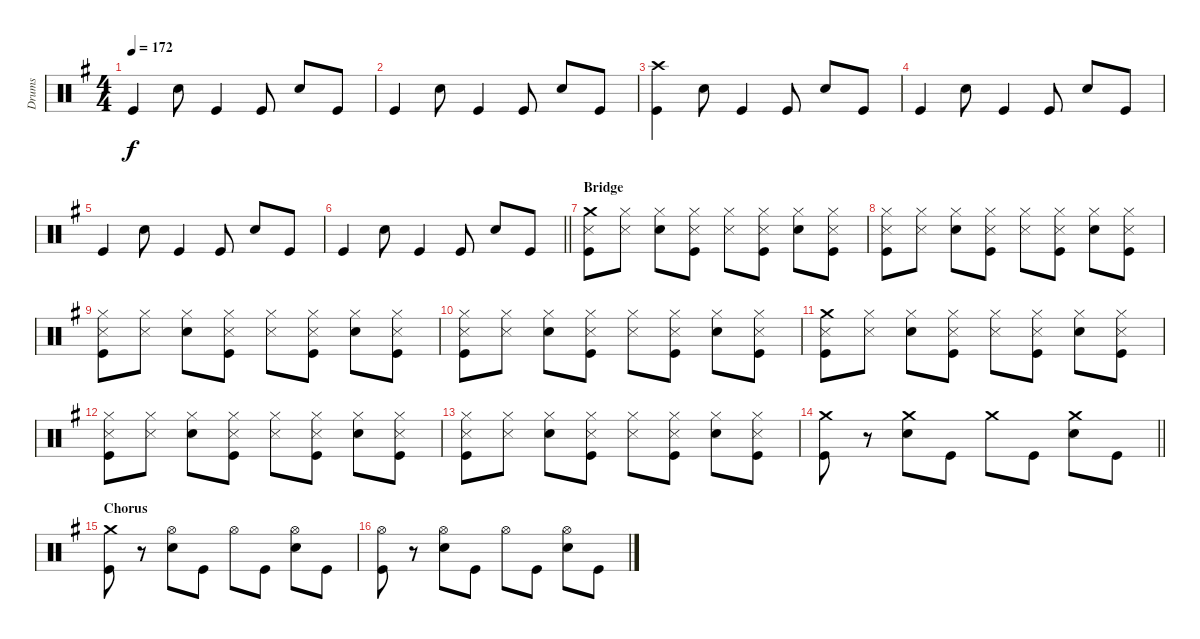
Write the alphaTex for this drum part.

\track ("Drums" "Drums") {instrument percussion}
\staff {score}
\articulation defaults
\ts (4 4)
\tempo 172
\clef neutral
\ks g "Kick (hit)".4{dy f} "Snare (hit) 2".8 "Kick (hit)".4 "Kick (hit)".8 "Snare (hit) 2".8 "Kick (hit)".8
|
"Kick (hit)".4 "Snare (hit) 2".8 "Kick (hit)".4 "Kick (hit)".8 "Snare (hit) 2".8 "Kick (hit)".8 |
("Crash high (hit)" "Kick (hit)").4 "Snare (hit) 2".8 "Kick (hit)".4 "Kick (hit)".8 "Snare (hit) 2".8 "Kick (hit)".8 |
"Kick (hit)".4 "Snare (hit) 2".8 "Kick (hit)".4 "Kick (hit)".8 "Snare (hit) 2".8 "Kick (hit)".8 |
"Kick (hit)".4 "Snare (hit) 2".8 "Kick (hit)".4 "Kick (hit)".8 "Snare (hit) 2".8 "Kick (hit)".8 |
\barLineRight lightlight "Kick (hit)".4 "Snare (hit) 2".8 "Kick (hit)".4 "Kick (hit)".8 "Snare (hit) 2".8 "Kick (hit)".8
|
\section ("" "Bridge")
("Crash medium (hit)" "Snare (side stick) 3" "Kick (hit)").8 ("Hi-Hat (closed)" "Snare (side stick) 3").8 ("Hi-Hat (closed)" "Snare (hit) 2").8 ("Hi-Hat (closed)" "Snare (side stick) 3" "Kick (hit)").8 ("Hi-Hat (closed)" "Snare (side stick) 3").8 ("Hi-Hat (closed)" "Snare (side stick) 3" "Kick (hit)").8 ("Hi-Hat (closed)" "Snare (hit) 2").8 ("Hi-Hat (closed)" "Snare (side stick) 3" "Kick (hit)").8 |
("Hi-Hat (closed)" "Snare (side stick) 3" "Kick (hit)").8 ("Hi-Hat (closed)" "Snare (side stick) 3").8 ("Hi-Hat (closed)" "Snare (hit) 2").8 ("Hi-Hat (closed)" "Snare (side stick) 3" "Kick (hit)").8 ("Hi-Hat (closed)" "Snare (side stick) 3").8 ("Hi-Hat (closed)" "Snare (side stick) 3" "Kick (hit)").8 ("Hi-Hat (closed)" "Snare (hit) 2").8 ("Hi-Hat (closed)" "Snare (side stick) 3" "Kick (hit)").8 |
("Hi-Hat (closed)" "Snare (side stick) 3" "Kick (hit)").8 ("Hi-Hat (closed)" "Snare (side stick) 3").8 ("Hi-Hat (closed)" "Snare (hit) 2").8 ("Hi-Hat (closed)" "Snare (side stick) 3" "Kick (hit)").8 ("Hi-Hat (closed)" "Snare (side stick) 3").8 ("Hi-Hat (closed)" "Snare (side stick) 3" "Kick (hit)").8 ("Hi-Hat (closed)" "Snare (hit) 2").8 ("Hi-Hat (closed)" "Snare (side stick) 3" "Kick (hit)").8 |
("Hi-Hat (closed)" "Snare (side stick) 3" "Kick (hit)").8 ("Hi-Hat (closed)" "Snare (side stick) 3").8 ("Hi-Hat (closed)" "Snare (hit) 2").8 ("Hi-Hat (closed)" "Snare (side stick) 3" "Kick (hit)").8 ("Hi-Hat (closed)" "Snare (side stick) 3").8 ("Hi-Hat (closed)" "Snare (side stick) 3" "Kick (hit)").8 ("Hi-Hat (closed)" "Snare (hit) 2").8 ("Hi-Hat (closed)" "Snare (side stick) 3" "Kick (hit)").8 |
("Crash medium (hit)" "Snare (side stick) 3" "Kick (hit)").8 ("Hi-Hat (closed)" "Snare (side stick) 3").8 ("Hi-Hat (closed)" "Snare (hit) 2").8 ("Hi-Hat (closed)" "Snare (side stick) 3" "Kick (hit)").8 ("Hi-Hat (closed)" "Snare (side stick) 3").8 ("Hi-Hat (closed)" "Snare (side stick) 3" "Kick (hit)").8 ("Hi-Hat (closed)" "Snare (hit) 2").8 ("Hi-Hat (closed)" "Snare (side stick) 3" "Kick (hit)").8 |
("Hi-Hat (closed)" "Snare (side stick) 3" "Kick (hit)").8 ("Hi-Hat (closed)" "Snare (side stick) 3").8 ("Hi-Hat (closed)" "Snare (hit) 2").8 ("Hi-Hat (closed)" "Snare (side stick) 3" "Kick (hit)").8 ("Hi-Hat (closed)" "Snare (side stick) 3").8 ("Hi-Hat (closed)" "Snare (side stick) 3" "Kick (hit)").8 ("Hi-Hat (closed)" "Snare (hit) 2").8 ("Hi-Hat (closed)" "Snare (side stick) 3" "Kick (hit)").8 |
("Hi-Hat (closed)" "Snare (side stick) 3" "Kick (hit)").8 ("Hi-Hat (closed)" "Snare (side stick) 3").8 ("Hi-Hat (closed)" "Snare (hit) 2").8 ("Hi-Hat (closed)" "Snare (side stick) 3" "Kick (hit)").8 ("Hi-Hat (closed)" "Snare (side stick) 3").8 ("Hi-Hat (closed)" "Snare (side stick) 3" "Kick (hit)").8 ("Hi-Hat (closed)" "Snare (hit) 2").8 ("Hi-Hat (closed)" "Snare (side stick) 3" "Kick (hit)").8 |
\barLineRight lightlight
("Crash medium (hit)" "Kick (hit)").8 r.8 ("Crash medium (hit)" "Snare (hit) 2").8 "Kick (hit)".8 "Crash medium (hit)".8 "Kick (hit)".8 ("Crash medium (hit)" "Snare (hit) 2").8 "Kick (hit)".8 |
\section ("" "Chorus")
("Crash medium (hit)" "Kick (hit)").8 r.8 ("Hi-Hat (open)" "Snare (hit) 2").8 "Kick (hit)".8 "Hi-Hat (open)".8 "Kick (hit)".8 ("Hi-Hat (open)" "Snare (hit) 2").8 "Kick (hit)".8 |
("Hi-Hat (open)" "Kick (hit)").8 r.8 ("Hi-Hat (open)" "Snare (hit) 2").8 "Kick (hit)".8 "Hi-Hat (open)".8 "Kick (hit)".8 ("Hi-Hat (open)" "Snare (hit) 2").8 "Kick (hit)".8
